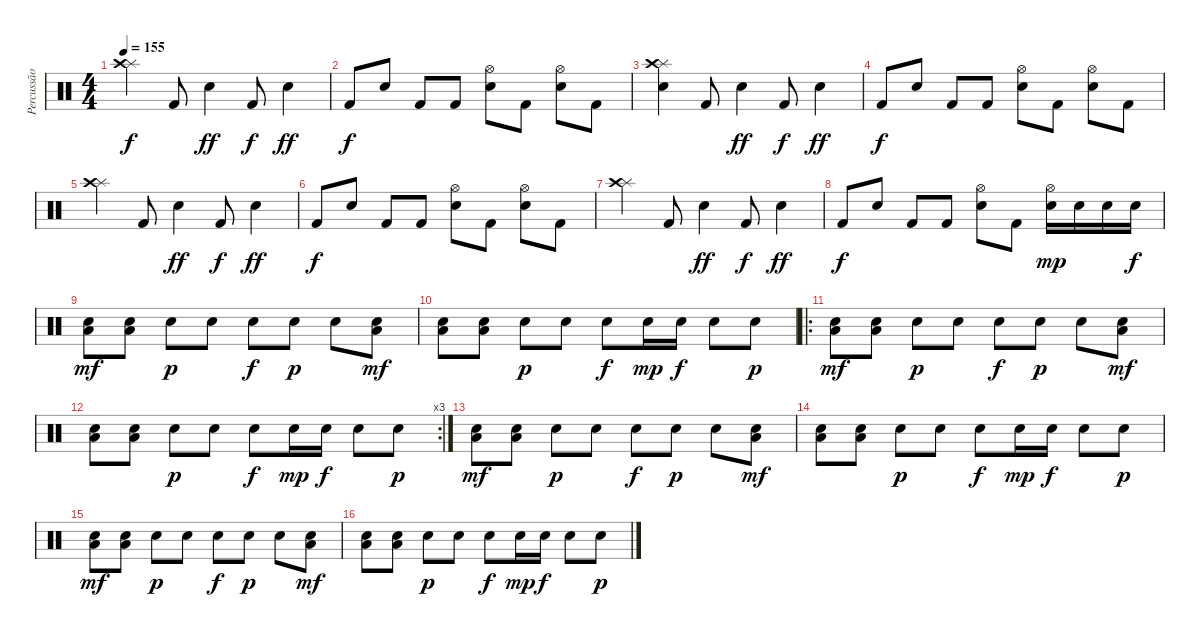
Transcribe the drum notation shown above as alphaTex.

\track ("Percussão" "Percussão") {instrument percussion}
\staff {score}
\articulation defaults
\ts (4 4)
\tempo 155
\clef neutral
\ks c
("Splash (hit)" "Crash high (hit)").4{dy f} "Kick (hit) 2".8 "Electric Snare (hit)".4{dy ff} "Kick (hit) 2".8{dy f} "Electric Snare (hit)".4{dy ff} |
"Kick (hit) 2".8{dy f} "Electric Snare (hit)".8 "Kick (hit) 2".8 "Kick (hit) 2".8 ("Hi-Hat (open)" "Electric Snare (hit)").8 "Kick (hit) 2".8 ("Hi-Hat (open)" "Electric Snare (hit)").8 "Kick (hit) 2".8 |
("Splash (hit)" "Crash high (hit)" "Electric Snare (hit)").4 "Kick (hit) 2".8 "Electric Snare (hit)".4{dy ff} "Kick (hit) 2".8{dy f} "Electric Snare (hit)".4{dy ff} |
"Kick (hit) 2".8{dy f} "Electric Snare (hit)".8 "Kick (hit) 2".8 "Kick (hit) 2".8 ("Hi-Hat (open)" "Electric Snare (hit)").8 "Kick (hit) 2".8 ("Hi-Hat (open)" "Electric Snare (hit)").8 "Kick (hit) 2".8 |
("Splash (hit)" "Crash high (hit)").4 "Kick (hit) 2".8 "Electric Snare (hit)".4{dy ff} "Kick (hit) 2".8{dy f} "Electric Snare (hit)".4{dy ff} |
"Kick (hit) 2".8{dy f} "Electric Snare (hit)".8 "Kick (hit) 2".8 "Kick (hit) 2".8 ("Hi-Hat (open)" "Electric Snare (hit)").8 "Kick (hit) 2".8 ("Hi-Hat (open)" "Electric Snare (hit)").8 "Kick (hit) 2".8 |
("Splash (hit)" "Crash high (hit)").4 "Kick (hit) 2".8 "Electric Snare (hit)".4{dy ff} "Kick (hit) 2".8{dy f} "Electric Snare (hit)".4{dy ff} |
"Kick (hit) 2".8{dy f} "Electric Snare (hit)".8 "Kick (hit) 2".8 "Kick (hit) 2".8 ("Hi-Hat (open)" "Electric Snare (hit)").8 "Kick (hit) 2".8 ("Hi-Hat (open)" "Electric Snare (hit)").16{dy mp} "Electric Snare (hit)".16 "Electric Snare (hit)".16 "Electric Snare (hit)".16{dy f} |
("Electric Snare (hit)" "Low Tom (hit)").8{dy mf} ("Electric Snare (hit)" "Low Tom (hit)").8 "Electric Snare (hit)".8{dy p} "Electric Snare (hit)".8 "Electric Snare (hit)".8{dy f} "Electric Snare (hit)".8{dy p} "Electric Snare (hit)".8 ("Electric Snare (hit)" "Low Tom (hit)").8{dy mf} |
("Electric Snare (hit)" "Low Tom (hit)").8 ("Electric Snare (hit)" "Low Tom (hit)").8 "Electric Snare (hit)".8{dy p} "Electric Snare (hit)".8 "Electric Snare (hit)".8{dy f} "Electric Snare (hit)".16{dy mp} "Electric Snare (hit)".16{dy f} "Electric Snare (hit)".8 "Electric Snare (hit)".8{dy p} |
\ro
("Electric Snare (hit)" "Low Tom (hit)").8{dy mf} ("Electric Snare (hit)" "Low Tom (hit)").8 "Electric Snare (hit)".8{dy p} "Electric Snare (hit)".8 "Electric Snare (hit)".8{dy f} "Electric Snare (hit)".8{dy p} "Electric Snare (hit)".8 ("Electric Snare (hit)" "Low Tom (hit)").8{dy mf} |
\rc 3
("Electric Snare (hit)" "Low Tom (hit)").8 ("Electric Snare (hit)" "Low Tom (hit)").8 "Electric Snare (hit)".8{dy p} "Electric Snare (hit)".8 "Electric Snare (hit)".8{dy f} "Electric Snare (hit)".16{dy mp} "Electric Snare (hit)".16{dy f} "Electric Snare (hit)".8 "Electric Snare (hit)".8{dy p} |
("Electric Snare (hit)" "Low Tom (hit)").8{dy mf} ("Electric Snare (hit)" "Low Tom (hit)").8 "Electric Snare (hit)".8{dy p} "Electric Snare (hit)".8 "Electric Snare (hit)".8{dy f} "Electric Snare (hit)".8{dy p} "Electric Snare (hit)".8 ("Electric Snare (hit)" "Low Tom (hit)").8{dy mf} |
("Electric Snare (hit)" "Low Tom (hit)").8 ("Electric Snare (hit)" "Low Tom (hit)").8 "Electric Snare (hit)".8{dy p} "Electric Snare (hit)".8 "Electric Snare (hit)".8{dy f} "Electric Snare (hit)".16{dy mp} "Electric Snare (hit)".16{dy f} "Electric Snare (hit)".8 "Electric Snare (hit)".8{dy p} |
("Electric Snare (hit)" "Low Tom (hit)").8{dy mf} ("Electric Snare (hit)" "Low Tom (hit)").8 "Electric Snare (hit)".8{dy p} "Electric Snare (hit)".8 "Electric Snare (hit)".8{dy f} "Electric Snare (hit)".8{dy p} "Electric Snare (hit)".8 ("Electric Snare (hit)" "Low Tom (hit)").8{dy mf} |
("Electric Snare (hit)" "Low Tom (hit)").8 ("Electric Snare (hit)" "Low Tom (hit)").8 "Electric Snare (hit)".8{dy p} "Electric Snare (hit)".8 "Electric Snare (hit)".8{dy f} "Electric Snare (hit)".16{dy mp} "Electric Snare (hit)".16{dy f} "Electric Snare (hit)".8 "Electric Snare (hit)".8{dy p}
